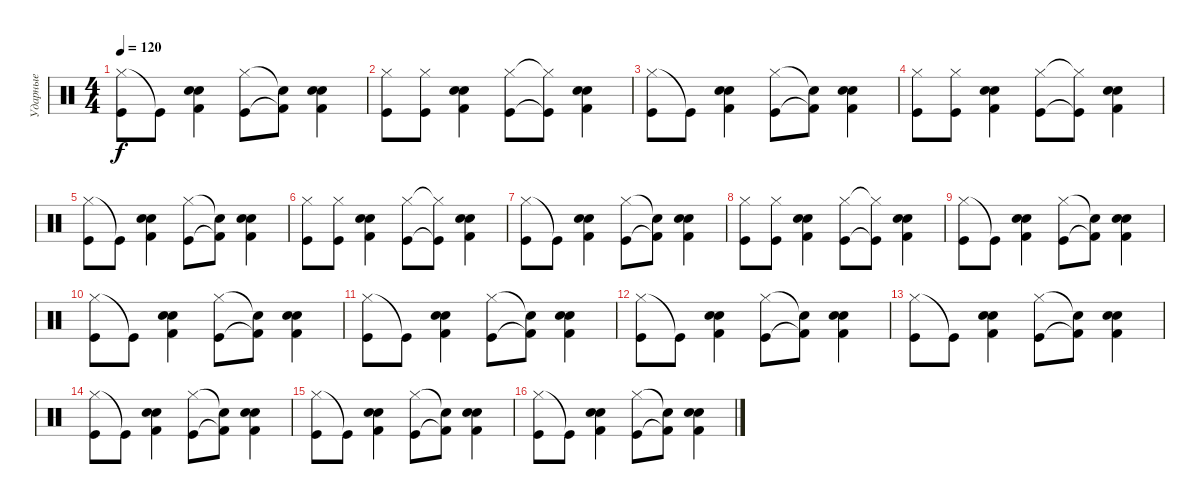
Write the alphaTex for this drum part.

\track ("Ударные" "Ударные") {instrument percussion}
\staff {score}
\articulation defaults
\ts (4 4)
\tempo 120
\clef neutral
\ks c
("Hi-Hat (closed)" "Kick (hit)").8{dy f} "Kick (hit)"{t}.8 ("Snare (hit) 2" "Kick (hit) 2" "Electric Snare (hit)").4 ("Hi-Hat (closed)" "Kick (hit)").8 ("Snare (hit) 2"{t} "Kick (hit) 2"{t}).8 ("Snare (hit) 2" "Kick (hit) 2" "Electric Snare (hit)").4 |
("Hi-Hat (closed)" "Kick (hit)").8 ("Hi-Hat (closed)" "Kick (hit)").8 ("Snare (hit) 2" "Kick (hit) 2" "Electric Snare (hit)").4 ("Hi-Hat (closed)" "Kick (hit)").8 ("Hi-Hat (closed)"{t} "Kick (hit)"{t}).8 ("Snare (hit) 2" "Kick (hit) 2" "Electric Snare (hit)").4 |
("Hi-Hat (closed)" "Kick (hit)").8 "Kick (hit)"{t}.8 ("Snare (hit) 2" "Kick (hit) 2" "Electric Snare (hit)").4 ("Hi-Hat (closed)" "Kick (hit)").8 ("Snare (hit) 2"{t} "Kick (hit) 2"{t}).8 ("Snare (hit) 2" "Kick (hit) 2" "Electric Snare (hit)").4 |
("Hi-Hat (closed)" "Kick (hit)").8 ("Hi-Hat (closed)" "Kick (hit)").8 ("Snare (hit) 2" "Kick (hit) 2" "Electric Snare (hit)").4 ("Hi-Hat (closed)" "Kick (hit)").8 ("Hi-Hat (closed)"{t} "Kick (hit)"{t}).8 ("Snare (hit) 2" "Kick (hit) 2" "Electric Snare (hit)").4 |
("Hi-Hat (closed)" "Kick (hit)").8 "Kick (hit)"{t}.8 ("Snare (hit) 2" "Kick (hit) 2" "Electric Snare (hit)").4 ("Hi-Hat (closed)" "Kick (hit)").8 ("Snare (hit) 2"{t} "Kick (hit) 2"{t}).8 ("Snare (hit) 2" "Kick (hit) 2" "Electric Snare (hit)").4 |
("Hi-Hat (closed)" "Kick (hit)").8 ("Hi-Hat (closed)" "Kick (hit)").8 ("Snare (hit) 2" "Kick (hit) 2" "Electric Snare (hit)").4 ("Hi-Hat (closed)" "Kick (hit)").8 ("Hi-Hat (closed)"{t} "Kick (hit)"{t}).8 ("Snare (hit) 2" "Kick (hit) 2" "Electric Snare (hit)").4 |
("Hi-Hat (closed)" "Kick (hit)").8 "Kick (hit)"{t}.8 ("Snare (hit) 2" "Kick (hit) 2" "Electric Snare (hit)").4 ("Hi-Hat (closed)" "Kick (hit)").8 ("Snare (hit) 2"{t} "Kick (hit) 2"{t}).8 ("Snare (hit) 2" "Kick (hit) 2" "Electric Snare (hit)").4 |
("Hi-Hat (closed)" "Kick (hit)").8 ("Hi-Hat (closed)" "Kick (hit)").8 ("Snare (hit) 2" "Kick (hit) 2" "Electric Snare (hit)").4 ("Hi-Hat (closed)" "Kick (hit)").8 ("Hi-Hat (closed)"{t} "Kick (hit)"{t}).8 ("Snare (hit) 2" "Kick (hit) 2" "Electric Snare (hit)").4 |
("Hi-Hat (closed)" "Kick (hit)").8 "Kick (hit)"{t}.8 ("Snare (hit) 2" "Kick (hit) 2" "Electric Snare (hit)").4 ("Hi-Hat (closed)" "Kick (hit)").8 ("Snare (hit) 2"{t} "Kick (hit) 2"{t}).8 ("Snare (hit) 2" "Kick (hit) 2" "Electric Snare (hit)").4 |
("Hi-Hat (closed)" "Kick (hit)").8 "Kick (hit)"{t}.8 ("Snare (hit) 2" "Kick (hit) 2" "Electric Snare (hit)").4 ("Hi-Hat (closed)" "Kick (hit)").8 ("Snare (hit) 2"{t} "Kick (hit) 2"{t}).8 ("Snare (hit) 2" "Kick (hit) 2" "Electric Snare (hit)").4 |
("Hi-Hat (closed)" "Kick (hit)").8 "Kick (hit)"{t}.8 ("Snare (hit) 2" "Kick (hit) 2" "Electric Snare (hit)").4 ("Hi-Hat (closed)" "Kick (hit)").8 ("Snare (hit) 2"{t} "Kick (hit) 2"{t}).8 ("Snare (hit) 2" "Kick (hit) 2" "Electric Snare (hit)").4 |
("Hi-Hat (closed)" "Kick (hit)").8 "Kick (hit)"{t}.8 ("Snare (hit) 2" "Kick (hit) 2" "Electric Snare (hit)").4 ("Hi-Hat (closed)" "Kick (hit)").8 ("Snare (hit) 2"{t} "Kick (hit) 2"{t}).8 ("Snare (hit) 2" "Kick (hit) 2" "Electric Snare (hit)").4 |
("Hi-Hat (closed)" "Kick (hit)").8 "Kick (hit)"{t}.8 ("Snare (hit) 2" "Kick (hit) 2" "Electric Snare (hit)").4 ("Hi-Hat (closed)" "Kick (hit)").8 ("Snare (hit) 2"{t} "Kick (hit) 2"{t}).8 ("Snare (hit) 2" "Kick (hit) 2" "Electric Snare (hit)").4 |
("Hi-Hat (closed)" "Kick (hit)").8 "Kick (hit)"{t}.8 ("Snare (hit) 2" "Kick (hit) 2" "Electric Snare (hit)").4 ("Hi-Hat (closed)" "Kick (hit)").8 ("Snare (hit) 2"{t} "Kick (hit) 2"{t}).8 ("Snare (hit) 2" "Kick (hit) 2" "Electric Snare (hit)").4 |
("Hi-Hat (closed)" "Kick (hit)").8 "Kick (hit)"{t}.8 ("Snare (hit) 2" "Kick (hit) 2" "Electric Snare (hit)").4 ("Hi-Hat (closed)" "Kick (hit)").8 ("Snare (hit) 2"{t} "Kick (hit) 2"{t}).8 ("Snare (hit) 2" "Kick (hit) 2" "Electric Snare (hit)").4 |
("Hi-Hat (closed)" "Kick (hit)").8 "Kick (hit)"{t}.8 ("Snare (hit) 2" "Kick (hit) 2" "Electric Snare (hit)").4 ("Hi-Hat (closed)" "Kick (hit)").8 ("Snare (hit) 2"{t} "Kick (hit) 2"{t}).8 ("Snare (hit) 2" "Kick (hit) 2" "Electric Snare (hit)").4
